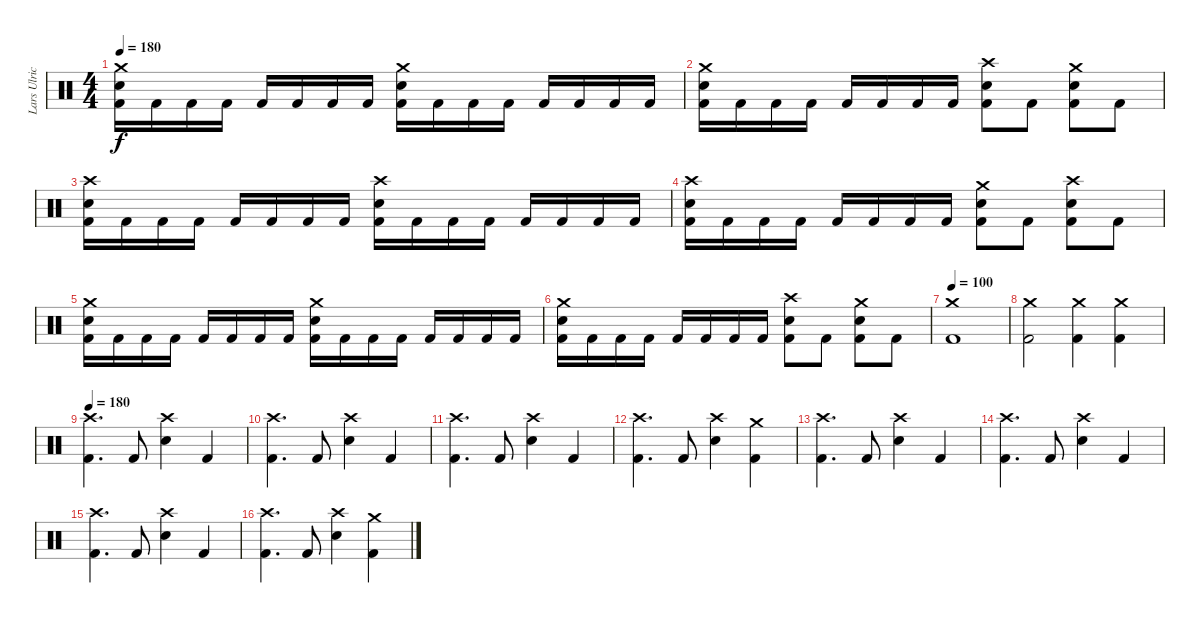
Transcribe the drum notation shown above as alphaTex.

\track ("Lars Ulrich" "Lars Ulric") {instrument percussion}
\staff {score}
\articulation defaults
\ts (4 4)
\tempo 180
\clef neutral
\ks c
("Crash medium (hit)" "Electric Snare (hit)" "Kick (hit) 2").16{dy f} "Kick (hit) 2".16 "Kick (hit) 2".16 "Kick (hit) 2".16 "Kick (hit) 2".16 "Kick (hit) 2".16 "Kick (hit) 2".16 "Kick (hit) 2".16 ("Crash medium (hit)" "Electric Snare (hit)" "Kick (hit) 2").16 "Kick (hit) 2".16 "Kick (hit) 2".16 "Kick (hit) 2".16 "Kick (hit) 2".16 "Kick (hit) 2".16 "Kick (hit) 2".16 "Kick (hit) 2".16 |
("Crash medium (hit)" "Electric Snare (hit)" "Kick (hit) 2").16 "Kick (hit) 2".16 "Kick (hit) 2".16 "Kick (hit) 2".16 "Kick (hit) 2".16 "Kick (hit) 2".16 "Kick (hit) 2".16 "Kick (hit) 2".16 ("Crash high (hit)" "Electric Snare (hit)" "Kick (hit) 2").8 "Kick (hit) 2".8 ("Crash medium (hit)" "Electric Snare (hit)" "Kick (hit) 2").8 "Kick (hit) 2".8 |
("Crash high (hit)" "Electric Snare (hit)" "Kick (hit) 2").16 "Kick (hit) 2".16 "Kick (hit) 2".16 "Kick (hit) 2".16 "Kick (hit) 2".16 "Kick (hit) 2".16 "Kick (hit) 2".16 "Kick (hit) 2".16 ("Crash high (hit)" "Electric Snare (hit)" "Kick (hit) 2").16 "Kick (hit) 2".16 "Kick (hit) 2".16 "Kick (hit) 2".16 "Kick (hit) 2".16 "Kick (hit) 2".16 "Kick (hit) 2".16 "Kick (hit) 2".16 |
("Crash high (hit)" "Electric Snare (hit)" "Kick (hit) 2").16 "Kick (hit) 2".16 "Kick (hit) 2".16 "Kick (hit) 2".16 "Kick (hit) 2".16 "Kick (hit) 2".16 "Kick (hit) 2".16 "Kick (hit) 2".16 ("Crash medium (hit)" "Electric Snare (hit)" "Kick (hit) 2").8 "Kick (hit) 2".8 ("Crash high (hit)" "Electric Snare (hit)" "Kick (hit) 2").8 "Kick (hit) 2".8 |
("Crash medium (hit)" "Electric Snare (hit)" "Kick (hit) 2").16 "Kick (hit) 2".16 "Kick (hit) 2".16 "Kick (hit) 2".16 "Kick (hit) 2".16 "Kick (hit) 2".16 "Kick (hit) 2".16 "Kick (hit) 2".16 ("Crash medium (hit)" "Electric Snare (hit)" "Kick (hit) 2").16 "Kick (hit) 2".16 "Kick (hit) 2".16 "Kick (hit) 2".16 "Kick (hit) 2".16 "Kick (hit) 2".16 "Kick (hit) 2".16 "Kick (hit) 2".16 |
("Crash medium (hit)" "Electric Snare (hit)" "Kick (hit) 2").16 "Kick (hit) 2".16 "Kick (hit) 2".16 "Kick (hit) 2".16 "Kick (hit) 2".16 "Kick (hit) 2".16 "Kick (hit) 2".16 "Kick (hit) 2".16 ("Crash high (hit)" "Electric Snare (hit)" "Kick (hit) 2").8 "Kick (hit) 2".8 ("Crash medium (hit)" "Electric Snare (hit)" "Kick (hit) 2").8 "Kick (hit) 2".8 |
\tempo 100
("Crash medium (hit)" "Kick (hit) 2").1 |
("Crash medium (hit)" "Kick (hit) 2").2 ("Crash medium (hit)" "Kick (hit) 2").4 ("Crash medium (hit)" "Kick (hit) 2").4 |
\tempo 180
("Crash high (hit)" "Kick (hit) 2").4{d} "Kick (hit) 2".8 ("Crash high (hit)" "Electric Snare (hit)").4 "Kick (hit) 2".4 |
("Crash high (hit)" "Kick (hit) 2").4{d} "Kick (hit) 2".8 ("Crash high (hit)" "Electric Snare (hit)").4 "Kick (hit) 2".4 |
("Crash high (hit)" "Kick (hit) 2").4{d} "Kick (hit) 2".8 ("Crash high (hit)" "Electric Snare (hit)").4 "Kick (hit) 2".4 |
("Crash high (hit)" "Kick (hit) 2").4{d} "Kick (hit) 2".8 ("Crash high (hit)" "Electric Snare (hit)").4 ("Crash medium (hit)" "Kick (hit) 2").4 |
("Crash high (hit)" "Kick (hit) 2").4{d} "Kick (hit) 2".8 ("Crash high (hit)" "Electric Snare (hit)").4 "Kick (hit) 2".4 |
("Crash high (hit)" "Kick (hit) 2").4{d} "Kick (hit) 2".8 ("Crash high (hit)" "Electric Snare (hit)").4 "Kick (hit) 2".4 |
("Crash high (hit)" "Kick (hit) 2").4{d} "Kick (hit) 2".8 ("Crash high (hit)" "Electric Snare (hit)").4 "Kick (hit) 2".4 |
("Crash high (hit)" "Kick (hit) 2").4{d} "Kick (hit) 2".8 ("Crash high (hit)" "Electric Snare (hit)").4 ("Crash medium (hit)" "Kick (hit) 2").4
